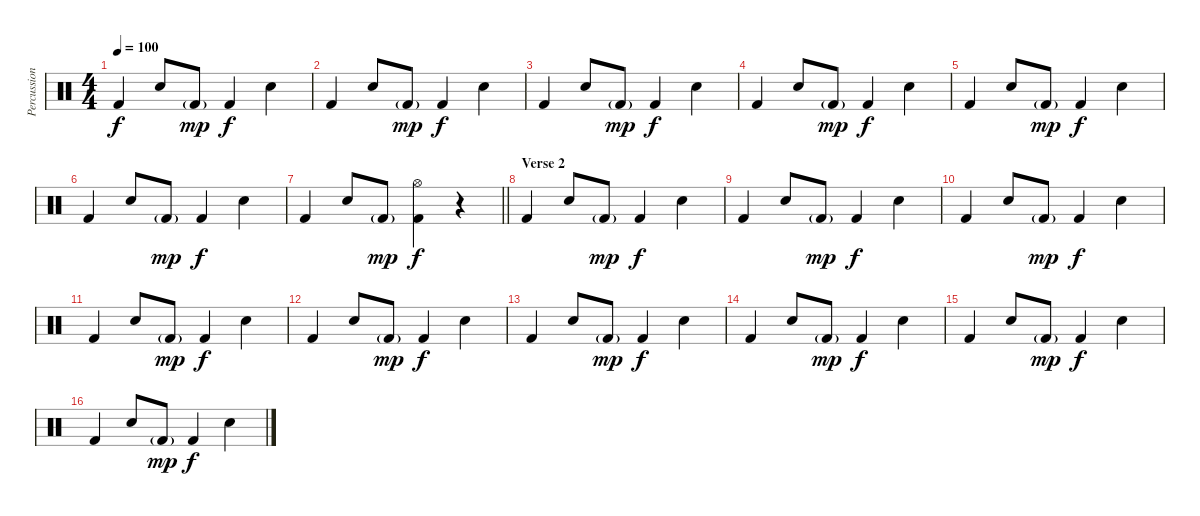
\track ("Percussion" "Percussion") {instrument percussion}
\staff {score}
\articulation defaults
\ts (4 4)
\tempo 100
\clef neutral
\ks c "Kick (hit) 2".4{dy f} "Snare (hit) 2".8 "Kick (hit) 2"{g}.8{dy mp} "Kick (hit) 2".4{dy f} "Snare (hit) 2".4
|
"Kick (hit) 2".4 "Snare (hit) 2".8 "Kick (hit) 2"{g}.8{dy mp} "Kick (hit) 2".4{dy f} "Snare (hit) 2".4 |
"Kick (hit) 2".4 "Snare (hit) 2".8 "Kick (hit) 2"{g}.8{dy mp} "Kick (hit) 2".4{dy f} "Snare (hit) 2".4 |
"Kick (hit) 2".4 "Snare (hit) 2".8 "Kick (hit) 2"{g}.8{dy mp} "Kick (hit) 2".4{dy f} "Snare (hit) 2".4 |
"Kick (hit) 2".4 "Snare (hit) 2".8 "Kick (hit) 2"{g}.8{dy mp} "Kick (hit) 2".4{dy f} "Snare (hit) 2".4 |
"Kick (hit) 2".4 "Snare (hit) 2".8 "Kick (hit) 2"{g}.8{dy mp} "Kick (hit) 2".4{dy f} "Snare (hit) 2".4 |
\barLineRight lightlight "Kick (hit) 2".4 "Snare (hit) 2".8 "Kick (hit) 2"{g}.8{dy mp}
("Hi-Hat (open)" "Kick (hit) 2").4{dy f} r.4 |
\section ("" "Verse 2")
"Kick (hit) 2".4 "Snare (hit) 2".8 "Kick (hit) 2"{g}.8{dy mp} "Kick (hit) 2".4{dy f} "Snare (hit) 2".4 |
"Kick (hit) 2".4 "Snare (hit) 2".8 "Kick (hit) 2"{g}.8{dy mp} "Kick (hit) 2".4{dy f} "Snare (hit) 2".4 |
"Kick (hit) 2".4 "Snare (hit) 2".8 "Kick (hit) 2"{g}.8{dy mp} "Kick (hit) 2".4{dy f} "Snare (hit) 2".4 |
"Kick (hit) 2".4 "Snare (hit) 2".8 "Kick (hit) 2"{g}.8{dy mp} "Kick (hit) 2".4{dy f} "Snare (hit) 2".4 |
"Kick (hit) 2".4 "Snare (hit) 2".8 "Kick (hit) 2"{g}.8{dy mp} "Kick (hit) 2".4{dy f} "Snare (hit) 2".4 |
"Kick (hit) 2".4 "Snare (hit) 2".8 "Kick (hit) 2"{g}.8{dy mp} "Kick (hit) 2".4{dy f} "Snare (hit) 2".4 |
"Kick (hit) 2".4 "Snare (hit) 2".8 "Kick (hit) 2"{g}.8{dy mp} "Kick (hit) 2".4{dy f} "Snare (hit) 2".4 |
"Kick (hit) 2".4 "Snare (hit) 2".8 "Kick (hit) 2"{g}.8{dy mp} "Kick (hit) 2".4{dy f} "Snare (hit) 2".4 |
"Kick (hit) 2".4 "Snare (hit) 2".8 "Kick (hit) 2"{g}.8{dy mp} "Kick (hit) 2".4{dy f} "Snare (hit) 2".4
